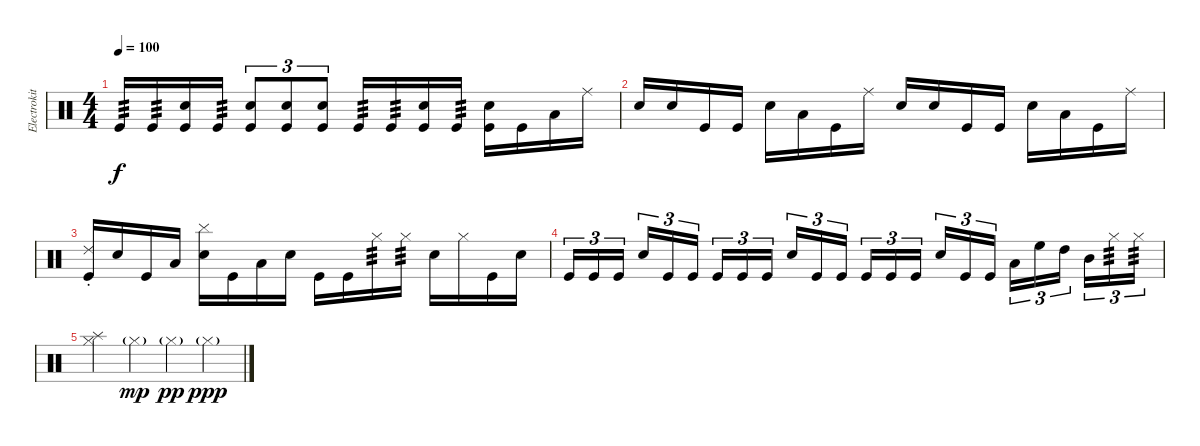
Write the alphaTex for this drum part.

\track ("Electrokit" "Electrokit") {instrument percussion}
\staff {score}
\articulation defaults
\ts (4 4)
\tempo 100
\clef neutral
\ks c "Kick (hit)".16{tp 3 dy f} "Kick (hit)".16{tp 3}
("Kick (hit)" "Snare (hit) 2").16 "Kick (hit)".16{tp 3} ("Kick (hit)" "Snare (hit) 2").8{tu (3 2)} ("Kick (hit)" "Snare (hit) 2").8{tu (3 2)} ("Kick (hit)" "Snare (hit) 2").8{tu (3 2)} "Kick (hit)".16{tp 3} "Kick (hit)".16{tp 3} ("Kick (hit)" "Snare (hit) 2").16 "Kick (hit)".16{tp 3} ("Kick (hit)" "Snare (hit) 2").16 "Kick (hit)".16 "Low Floor Tom (hit)".16 "Ride (middle)".16 |
"Snare (hit) 2".16 "Snare (hit) 2".16 "Kick (hit)".16 "Kick (hit)".16 "Snare (hit) 2".16 "Low Floor Tom (hit)".16 "Kick (hit)".16 "Ride (middle)".16 "Snare (hit) 2".16 "Snare (hit) 2".16 "Kick (hit)".16 "Kick (hit)".16 "Snare (hit) 2".16 "Low Floor Tom (hit)".16 "Kick (hit)".16 "Ride (middle)".16 |
("Kick (hit)" "Ride (choke) 2").16 "Snare (hit) 2".16 "Kick (hit)".16 "Low Floor Tom (hit)".16 ("Snare (hit) 2" "Cymbal (hit)").16 "Kick (hit)".16 "Low Floor Tom (hit)".16 "Snare (hit) 2".16 "Kick (hit)".16 "Kick (hit)".16 "Hi-Hat (closed)".16{tp 3} "Hi-Hat (closed)".16{tp 3} "Snare (hit) 2".16 "Hi-Hat (closed)".16 "Kick (hit)".16 "Snare (hit) 2".16 |
"Kick (hit)".16{tu (3 2)} "Kick (hit)".16{tu (3 2)} "Kick (hit)".16{tu (3 2) beam splitsecondary} "Snare (hit) 2".16{tu (3 2)} "Kick (hit)".16{tu (3 2)} "Kick (hit)".16{tu (3 2)} "Kick (hit)".16{tu (3 2)} "Kick (hit)".16{tu (3 2)} "Kick (hit)".16{tu (3 2) beam splitsecondary} "Snare (hit) 2".16{tu (3 2)} "Kick (hit)".16{tu (3 2)} "Kick (hit)".16{tu (3 2)} "Kick (hit)".16{tu (3 2)} "Kick (hit)".16{tu (3 2)} "Kick (hit)".16{tu (3 2) beam splitsecondary} "Snare (hit) 2".16{tu (3 2)} "Kick (hit)".16{tu (3 2)} "Kick (hit)".16{tu (3 2)} "Low Floor Tom (hit)".16{tu (3 2)} "High Floor Tom (hit)".16{tu (3 2)} "High Tom (hit)".16{tu (3 2) beam splitsecondary} "Mid Tom (hit)".16{tu (3 2)} "Hi-Hat (closed)".16{tu (3 2) tp 3} "Hi-Hat (closed)".16{tu (3 2) tp 3} |
("Hi-Hat (closed)" "Splash (hit)").4 "Hi-Hat (closed)"{g}.4{dy mp} "Hi-Hat (closed)"{g}.4{dy pp} "Hi-Hat (closed)"{g}.4{dy ppp}
